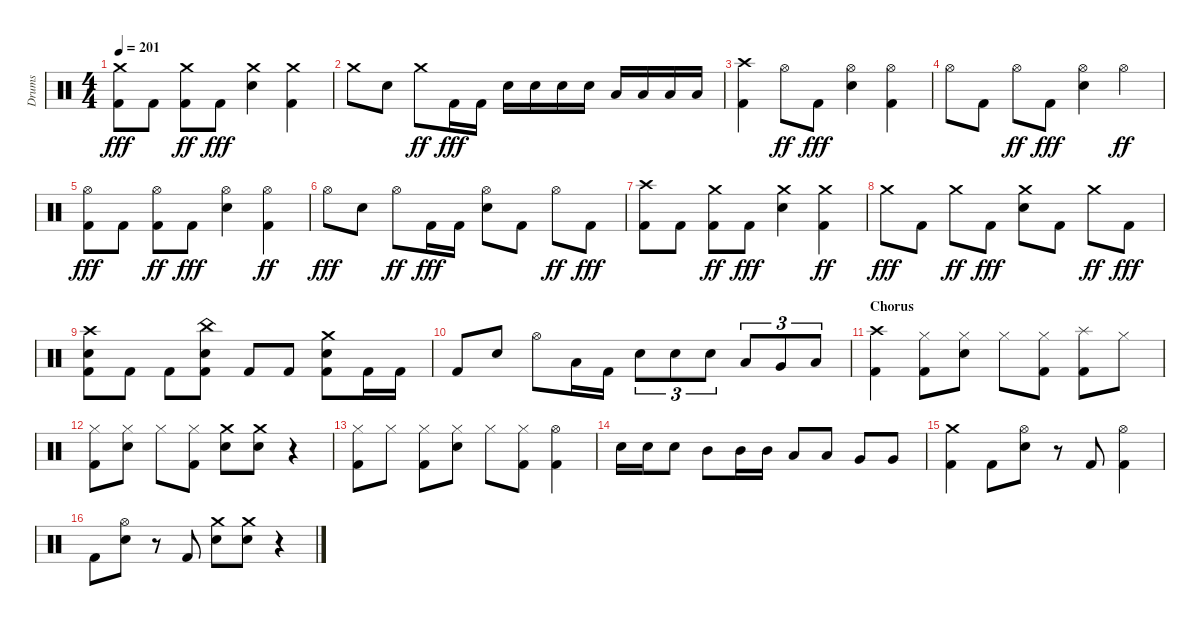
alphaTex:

\track ("Drums" "Drums") {instrument percussion}
\staff {score}
\articulation defaults
\ts (4 4)
\tempo 201
\clef neutral
\ks aminor
("Crash medium (hit)" "Kick (hit) 2").8{dy fff} "Kick (hit) 2".8 ("Kick (hit) 2" "Crash medium (hit)").8{dy ff} "Kick (hit) 2".8{dy fff} ("Snare (hit) 2" "Crash medium (hit)").4 ("Crash medium (hit)" "Kick (hit) 2").4 |
"Crash medium (hit)".8 "Snare (hit) 2".8 "Crash medium (hit)".8{dy ff} "Kick (hit) 2".16{dy fff} "Kick (hit) 2".16 "Snare (hit) 2".16 "Snare (hit) 2".16 "Snare (hit) 2".16 "Snare (hit) 2".16 "Low Floor Tom (hit)".16 "Low Floor Tom (hit)".16 "Low Floor Tom (hit)".16 "Low Floor Tom (hit)".16 |
("Crash high (hit)" "Kick (hit) 2").4 "Hi-Hat (open)".8{dy ff} "Kick (hit) 2".8{dy fff} ("Hi-Hat (open)" "Snare (hit) 2").4 ("Kick (hit) 2" "Hi-Hat (open)").4 |
"Hi-Hat (open)".8 "Kick (hit) 2".8 "Hi-Hat (open)".8{dy ff} "Kick (hit) 2".8{dy fff} ("Snare (hit) 2" "Hi-Hat (open)").4 "Hi-Hat (open)".4{dy ff} |
("Kick (hit) 2" "Hi-Hat (open)").8{dy fff} "Kick (hit) 2".8 ("Kick (hit) 2" "Hi-Hat (open)").8{dy ff} "Kick (hit) 2".8{dy fff} ("Hi-Hat (open)" "Snare (hit) 2").4 ("Hi-Hat (open)" "Kick (hit) 2").4{dy ff} |
"Hi-Hat (open)".8{dy fff} "Snare (hit) 2".8 "Hi-Hat (open)".8{dy ff} "Kick (hit) 2".16{dy fff} "Kick (hit) 2".16 ("Snare (hit) 2" "Hi-Hat (open)").8 "Kick (hit) 2".8 "Hi-Hat (open)".8{dy ff} "Kick (hit) 2".8{dy fff} |
("Kick (hit) 2" "Crash high (hit)").8 "Kick (hit) 2".8 ("Crash medium (hit)" "Kick (hit) 2").8{dy ff} "Kick (hit) 2".8{dy fff} ("Snare (hit) 2" "Crash medium (hit)").4 ("Crash medium (hit)" "Kick (hit) 2").4{dy ff} |
"Crash medium (hit)".8{dy fff} "Kick (hit) 2".8 "Crash medium (hit)".8{dy ff} "Kick (hit) 2".8{dy fff} ("Snare (hit) 2" "Crash medium (hit)").8 "Kick (hit) 2".8 "Crash medium (hit)".8{dy ff} "Kick (hit) 2".8{dy fff} |
("Crash high (hit)" "Kick (hit) 2" "Snare (hit) 2").8 "Kick (hit) 2".8 "Kick (hit) 2".8 ("China (hit)" "Snare (hit) 2" "Kick (hit) 2").8 "Kick (hit) 2".8 "Kick (hit) 2".8 ("Kick (hit) 2" "Crash medium (hit)" "Snare (hit) 2").8 "Kick (hit) 2".16 "Kick (hit) 2".16 |
"Kick (hit) 2".8 "Snare (hit) 2".8 "Hi-Hat (open)".8 "Low Tom (hit)".16 "Kick (hit) 2".16 "Snare (hit) 2".8{tu (3 2)} "Snare (hit) 2".8{tu (3 2)} "Snare (hit) 2".8{tu (3 2)} "Low Tom (hit)".8{tu (3 2)} "Very Low Tom (hit)".8{tu (3 2)} "Low Floor Tom (hit)".8{tu (3 2)} |
\section ("" "Chorus")
("Crash high (hit)" "Kick (hit) 2").4 ("Hi-Hat (closed)" "Kick (hit) 2").8 ("Snare (hit) 2" "Hi-Hat (closed)").8 "Hi-Hat (closed)".8 ("Kick (hit) 2" "Hi-Hat (closed)").8 ("Kick (hit) 2" "Splash (hit)").8 "Hi-Hat (closed)".8 |
("Hi-Hat (closed)" "Kick (hit) 2").8 ("Snare (hit) 2" "Hi-Hat (closed)").8 "Hi-Hat (closed)".8 ("Hi-Hat (closed)" "Kick (hit) 2").8 ("Snare (hit) 2" "Crash medium (hit)").8 ("Snare (hit) 2" "Crash medium (hit)").8 r.4 |
("Kick (hit) 2" "Hi-Hat (closed)").8 "Hi-Hat (closed)".8 ("Hi-Hat (closed)" "Kick (hit) 2").8 ("Hi-Hat (closed)" "Snare (hit) 2").8 "Hi-Hat (closed)".8 ("Hi-Hat (closed)" "Kick (hit) 2").8 ("Kick (hit) 2" "Hi-Hat (open)").4 |
"Snare (hit) 2".16 "Snare (hit) 2".16 "Snare (hit) 2".8 "Mid Tom (hit)".8 "Mid Tom (hit)".16 "Mid Tom (hit)".16 "Low Tom (hit)".8 "Low Tom (hit)".8 "Very Low Tom (hit)".8 "Very Low Tom (hit)".8 |
("Crash medium (hit)" "Kick (hit) 2").4 "Kick (hit) 2".8 ("Snare (hit) 2" "Hi-Hat (open)").8 r.8 "Kick (hit) 2".8 ("Kick (hit) 2" "Hi-Hat (open)").4 |
"Kick (hit) 2".8 ("Hi-Hat (open)" "Snare (hit) 2").8 r.8 "Kick (hit) 2".8 ("Crash medium (hit)" "Snare (hit) 2").8 ("Crash medium (hit)" "Snare (hit) 2").8 r.4
